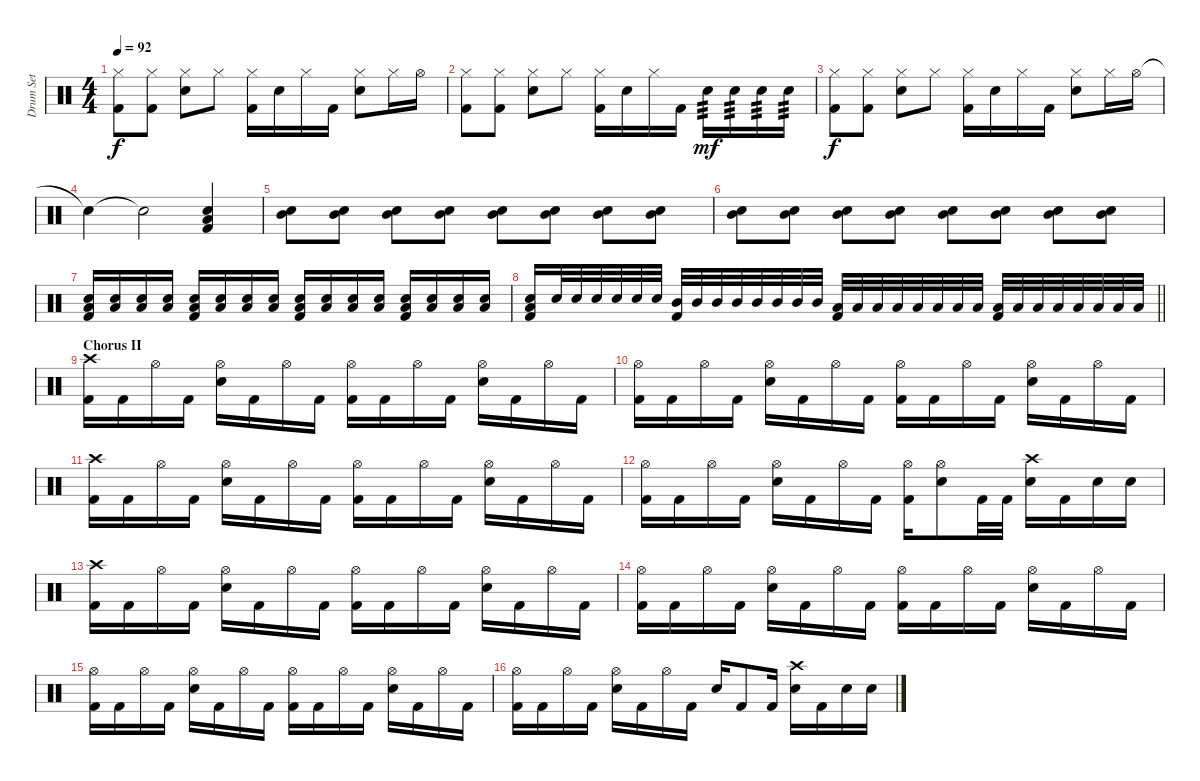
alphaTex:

\track ("Drum Set" "Drum Set") {instrument percussion}
\staff {score}
\articulation defaults
\ts (4 4)
\tempo 92
\clef neutral
\ks c
("Hi-Hat (closed)" "Kick (hit) 2").8{dy f} ("Hi-Hat (closed)" "Kick (hit) 2").8 ("Hi-Hat (closed)" "Electric Snare (hit)").8 "Hi-Hat (closed)".8 ("Hi-Hat (closed)" "Kick (hit) 2").16 "Electric Snare (hit)".16 "Hi-Hat (closed)".16 "Kick (hit) 2".16 ("Hi-Hat (closed)" "Electric Snare (hit)").8 "Hi-Hat (closed)".16 "Hi-Hat (open)".16 |
("Hi-Hat (closed)" "Kick (hit) 2").8 ("Hi-Hat (closed)" "Kick (hit) 2").8 ("Hi-Hat (closed)" "Electric Snare (hit)").8 "Hi-Hat (closed)".8 ("Hi-Hat (closed)" "Kick (hit) 2").16 "Electric Snare (hit)".16 "Hi-Hat (closed)".16 "Kick (hit) 2".16 "Electric Snare (hit)".16{tp 3 dy mf} "Electric Snare (hit)".16{tp 3} "Electric Snare (hit)".16{tp 3} "Electric Snare (hit)".16{tp 3} |
("Hi-Hat (closed)" "Kick (hit) 2").8{dy f} ("Hi-Hat (closed)" "Kick (hit) 2").8 ("Hi-Hat (closed)" "Electric Snare (hit)").8 "Hi-Hat (closed)".8 ("Hi-Hat (closed)" "Kick (hit) 2").16 "Electric Snare (hit)".16 "Hi-Hat (closed)".16 "Kick (hit) 2".16 ("Hi-Hat (closed)" "Electric Snare (hit)").8 "Hi-Hat (closed)".16 "Hi-Hat (open)".16 |
"Snare (hit)"{t}.4 "Snare (hit)"{t}.2 ("Low Floor Tom (hit)" "Electric Snare (hit)" "Kick (hit) 2").4 |
("Mid Tom (hit)" "Electric Snare (hit)").8 ("Mid Tom (hit)" "Electric Snare (hit)").8 ("Mid Tom (hit)" "Electric Snare (hit)").8 ("Mid Tom (hit)" "Electric Snare (hit)").8 ("Mid Tom (hit)" "Electric Snare (hit)").8 ("Mid Tom (hit)" "Electric Snare (hit)").8 ("Mid Tom (hit)" "Electric Snare (hit)").8 ("Mid Tom (hit)" "Electric Snare (hit)").8 |
("Mid Tom (hit)" "Electric Snare (hit)").8 ("Mid Tom (hit)" "Electric Snare (hit)").8 ("Mid Tom (hit)" "Electric Snare (hit)").8 ("Mid Tom (hit)" "Electric Snare (hit)").8 ("Mid Tom (hit)" "Electric Snare (hit)").8 ("Mid Tom (hit)" "Electric Snare (hit)").8 ("Mid Tom (hit)" "Electric Snare (hit)").8 ("Mid Tom (hit)" "Electric Snare (hit)").8 |
("Low Floor Tom (hit)" "Electric Snare (hit)" "Kick (hit) 2").16 ("Low Floor Tom (hit)" "Electric Snare (hit)").16 ("Low Floor Tom (hit)" "Electric Snare (hit)").16 ("Low Floor Tom (hit)" "Electric Snare (hit)").16 ("Low Floor Tom (hit)" "Electric Snare (hit)" "Kick (hit) 2").16 ("Low Floor Tom (hit)" "Electric Snare (hit)").16 ("Low Floor Tom (hit)" "Electric Snare (hit)").16 ("Low Floor Tom (hit)" "Electric Snare (hit)").16 ("Low Floor Tom (hit)" "Electric Snare (hit)" "Kick (hit) 2").16 ("Low Floor Tom (hit)" "Electric Snare (hit)").16 ("Low Floor Tom (hit)" "Electric Snare (hit)").16 ("Low Floor Tom (hit)" "Electric Snare (hit)").16 ("Low Floor Tom (hit)" "Electric Snare (hit)" "Kick (hit) 2").16 ("Low Floor Tom (hit)" "Electric Snare (hit)").16 ("Low Floor Tom (hit)" "Electric Snare (hit)").16 ("Low Floor Tom (hit)" "Electric Snare (hit)").16 |
\barLineRight lightlight
("Electric Snare (hit)" "Low Floor Tom (hit)" "Kick (hit) 2").16 "Electric Snare (hit)".32 "Electric Snare (hit)".32 "Electric Snare (hit)".32 "Electric Snare (hit)".32 "Electric Snare (hit)".32 "Electric Snare (hit)".32 ("Mid Tom (hit)" "Kick (hit) 2").32 "Mid Tom (hit)".32 "Mid Tom (hit)".32 "Mid Tom (hit)".32 "Mid Tom (hit)".32 "Mid Tom (hit)".32 "Mid Tom (hit)".32 "Mid Tom (hit)".32 ("Low Tom (hit)" "Kick (hit) 2").32 "Low Tom (hit)".32 "Low Tom (hit)".32 "Low Tom (hit)".32 "Low Tom (hit)".32 "Low Tom (hit)".32 "Low Tom (hit)".32 "Low Tom (hit)".32 ("Low Floor Tom (hit)" "Kick (hit) 2").32 "Low Floor Tom (hit)".32 "Low Floor Tom (hit)".32 "Low Floor Tom (hit)".32 "Low Floor Tom (hit)".32 "Low Floor Tom (hit)".32 "Low Floor Tom (hit)".32 "Low Floor Tom (hit)".32 |
\section ("" "Chorus II")
("Crash high (hit)" "Kick (hit) 2").16 "Kick (hit) 2".16 "Hi-Hat (open)".16 "Kick (hit) 2".16 ("Hi-Hat (open)" "Electric Snare (hit)").16 "Kick (hit) 2".16 "Hi-Hat (open)".16 "Kick (hit) 2".16 ("Hi-Hat (open)" "Kick (hit) 2").16 "Kick (hit) 2".16 "Hi-Hat (open)".16 "Kick (hit) 2".16 ("Hi-Hat (open)" "Electric Snare (hit)").16 "Kick (hit) 2".16 "Hi-Hat (open)".16 "Kick (hit) 2".16 |
("Hi-Hat (open)" "Kick (hit) 2").16 "Kick (hit) 2".16 "Hi-Hat (open)".16 "Kick (hit) 2".16 ("Hi-Hat (open)" "Electric Snare (hit)").16 "Kick (hit) 2".16 "Hi-Hat (open)".16 "Kick (hit) 2".16 ("Hi-Hat (open)" "Kick (hit) 2").16 "Kick (hit) 2".16 "Hi-Hat (open)".16 "Kick (hit) 2".16 ("Hi-Hat (open)" "Electric Snare (hit)").16 "Kick (hit) 2".16 "Hi-Hat (open)".16 "Kick (hit) 2".16 |
("Crash high (hit)" "Kick (hit) 2").16 "Kick (hit) 2".16 "Hi-Hat (open)".16 "Kick (hit) 2".16 ("Hi-Hat (open)" "Electric Snare (hit)").16 "Kick (hit) 2".16 "Hi-Hat (open)".16 "Kick (hit) 2".16 ("Hi-Hat (open)" "Kick (hit) 2").16 "Kick (hit) 2".16 "Hi-Hat (open)".16 "Kick (hit) 2".16 ("Hi-Hat (open)" "Electric Snare (hit)").16 "Kick (hit) 2".16 "Hi-Hat (open)".16 "Kick (hit) 2".16 |
("Hi-Hat (open)" "Kick (hit) 2").16 "Kick (hit) 2".16 "Hi-Hat (open)".16 "Kick (hit) 2".16 ("Hi-Hat (open)" "Electric Snare (hit)").16 "Kick (hit) 2".16 "Hi-Hat (open)".16 "Kick (hit) 2".16 ("Hi-Hat (open)" "Kick (hit) 2").16 ("Hi-Hat (open)" "Electric Snare (hit)").8 "Kick (hit) 2".32 "Kick (hit) 2".32 ("Crash high (hit)" "Electric Snare (hit)").16 "Kick (hit) 2".16 "Electric Snare (hit)".16 "Electric Snare (hit)".16 |
("Crash high (hit)" "Kick (hit) 2").16 "Kick (hit) 2".16 "Hi-Hat (open)".16 "Kick (hit) 2".16 ("Hi-Hat (open)" "Electric Snare (hit)").16 "Kick (hit) 2".16 "Hi-Hat (open)".16 "Kick (hit) 2".16 ("Hi-Hat (open)" "Kick (hit) 2").16 "Kick (hit) 2".16 "Hi-Hat (open)".16 "Kick (hit) 2".16 ("Hi-Hat (open)" "Electric Snare (hit)").16 "Kick (hit) 2".16 "Hi-Hat (open)".16 "Kick (hit) 2".16 |
("Hi-Hat (open)" "Kick (hit) 2").16 "Kick (hit) 2".16 "Hi-Hat (open)".16 "Kick (hit) 2".16 ("Hi-Hat (open)" "Electric Snare (hit)").16 "Kick (hit) 2".16 "Hi-Hat (open)".16 "Kick (hit) 2".16 ("Hi-Hat (open)" "Kick (hit) 2").16 "Kick (hit) 2".16 "Hi-Hat (open)".16 "Kick (hit) 2".16 ("Hi-Hat (open)" "Electric Snare (hit)").16 "Kick (hit) 2".16 "Hi-Hat (open)".16 "Kick (hit) 2".16 |
("Hi-Hat (open)" "Kick (hit) 2").16 "Kick (hit) 2".16 "Hi-Hat (open)".16 "Kick (hit) 2".16 ("Hi-Hat (open)" "Electric Snare (hit)").16 "Kick (hit) 2".16 "Hi-Hat (open)".16 "Kick (hit) 2".16 ("Hi-Hat (open)" "Kick (hit) 2").16 "Kick (hit) 2".16 "Hi-Hat (open)".16 "Kick (hit) 2".16 ("Hi-Hat (open)" "Electric Snare (hit)").16 "Kick (hit) 2".16 "Hi-Hat (open)".16 "Kick (hit) 2".16 |
("Hi-Hat (open)" "Kick (hit) 2").16 "Kick (hit) 2".16 "Hi-Hat (open)".16 "Kick (hit) 2".16 ("Hi-Hat (open)" "Electric Snare (hit)").16 "Kick (hit) 2".16 "Hi-Hat (open)".16 "Kick (hit) 2".16 "Electric Snare (hit)".16 "Kick (hit) 2".8 "Kick (hit) 2".16 ("Crash high (hit)" "Electric Snare (hit)").16 "Kick (hit) 2".16 "Electric Snare (hit)".16 "Electric Snare (hit)".16
